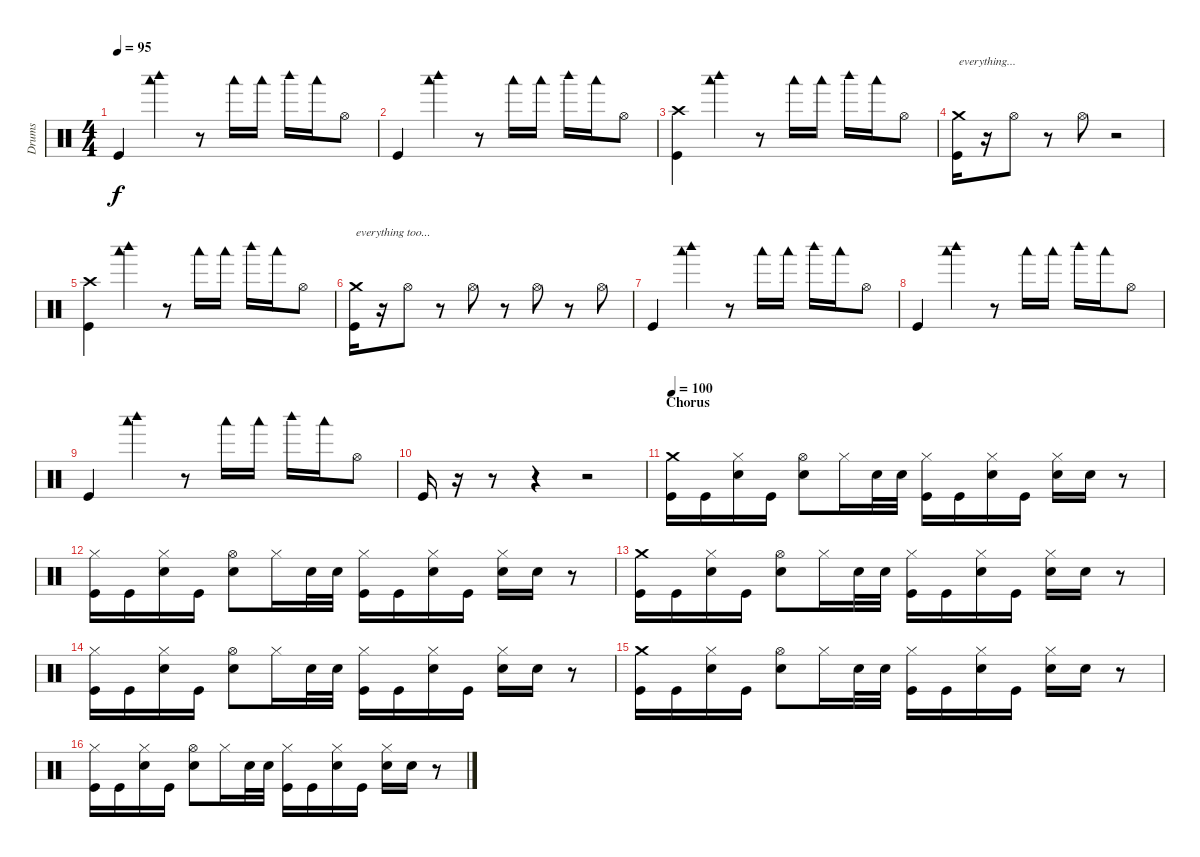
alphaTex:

\track ("Drums" "Drums") {instrument percussion}
\staff {score}
\articulation defaults
\ts (4 4)
\tempo 95
\clef neutral
\ks c "Kick (hit)".4{dy f}
("Woodblock high (hit)" "Woodblock low (hit)").4 r.8 "Woodblock low (hit)".16 "Woodblock low (hit)".16 "Woodblock high (hit)".16 "Woodblock low (hit)".16 "Hi-Hat (open)".8 |
"Kick (hit)".4 ("Woodblock high (hit)" "Woodblock low (hit)").4 r.8 "Woodblock low (hit)".16 "Woodblock low (hit)".16 "Woodblock high (hit)".16 "Woodblock low (hit)".16 "Hi-Hat (open)".8 |
("Crash high (hit)" "Kick (hit)").4 ("Woodblock high (hit)" "Woodblock low (hit)").4 r.8 "Woodblock low (hit)".16 "Woodblock low (hit)".16 "Woodblock high (hit)".16 "Woodblock low (hit)".16 "Hi-Hat (open)".8 |
("Crash medium (hit)" "Kick (hit)").16{txt "everything..."} r.16 "Hi-Hat (open)".8 r.8 "Hi-Hat (open)".8 r.2 |
("Crash high (hit)" "Kick (hit)").4 ("Woodblock high (hit)" "Woodblock low (hit)").4 r.8 "Woodblock low (hit)".16 "Woodblock low (hit)".16 "Woodblock high (hit)".16 "Woodblock low (hit)".16 "Hi-Hat (open)".8 |
("Crash medium (hit)" "Kick (hit)").16{txt "everything too..."} r.16 "Hi-Hat (open)".8 r.8 "Hi-Hat (open)".8 r.8 "Hi-Hat (open)".8 r.8 "Hi-Hat (open)".8 |
"Kick (hit)".4 ("Woodblock high (hit)" "Woodblock low (hit)").4 r.8 "Woodblock low (hit)".16 "Woodblock low (hit)".16 "Woodblock high (hit)".16 "Woodblock low (hit)".16 "Hi-Hat (open)".8 |
"Kick (hit)".4 ("Woodblock high (hit)" "Woodblock low (hit)").4 r.8 "Woodblock low (hit)".16 "Woodblock low (hit)".16 "Woodblock high (hit)".16 "Woodblock low (hit)".16 "Hi-Hat (open)".8 |
"Kick (hit)".4 ("Woodblock high (hit)" "Woodblock low (hit)").4 r.8 "Woodblock low (hit)".16 "Woodblock low (hit)".16 "Woodblock high (hit)".16 "Woodblock low (hit)".16 "Hi-Hat (open)".8 |
"Kick (hit)".16 r.16 r.8 r.4 r.2 |
\section ("" "Chorus")
\tempo 100
("Crash medium (hit)" "Kick (hit)").16 "Kick (hit)".16 ("Hi-Hat (closed)" "Electric Snare (hit)").16 "Kick (hit)".16 ("Hi-Hat (open)" "Electric Snare (hit)").8 "Hi-Hat (closed)".16 "Electric Snare (hit)".32 "Electric Snare (hit)".32 ("Hi-Hat (closed)" "Kick (hit)").16 "Kick (hit)".16 ("Hi-Hat (closed)" "Electric Snare (hit)").16 "Kick (hit)".16 ("Hi-Hat (closed)" "Electric Snare (hit)").16 "Electric Snare (hit)".16 r.8 |
("Hi-Hat (closed)" "Kick (hit)").16 "Kick (hit)".16 ("Hi-Hat (closed)" "Electric Snare (hit)").16 "Kick (hit)".16 ("Hi-Hat (open)" "Electric Snare (hit)").8 "Hi-Hat (closed)".16 "Electric Snare (hit)".32 "Electric Snare (hit)".32 ("Hi-Hat (closed)" "Kick (hit)").16 "Kick (hit)".16 ("Hi-Hat (closed)" "Electric Snare (hit)").16 "Kick (hit)".16 ("Hi-Hat (closed)" "Electric Snare (hit)").16 "Electric Snare (hit)".16 r.8 |
("Crash medium (hit)" "Kick (hit)").16 "Kick (hit)".16 ("Hi-Hat (closed)" "Electric Snare (hit)").16 "Kick (hit)".16 ("Hi-Hat (open)" "Electric Snare (hit)").8 "Hi-Hat (closed)".16 "Electric Snare (hit)".32 "Electric Snare (hit)".32 ("Hi-Hat (closed)" "Kick (hit)").16 "Kick (hit)".16 ("Hi-Hat (closed)" "Electric Snare (hit)").16 "Kick (hit)".16 ("Hi-Hat (closed)" "Electric Snare (hit)").16 "Electric Snare (hit)".16 r.8 |
("Hi-Hat (closed)" "Kick (hit)").16 "Kick (hit)".16 ("Hi-Hat (closed)" "Electric Snare (hit)").16 "Kick (hit)".16 ("Hi-Hat (open)" "Electric Snare (hit)").8 "Hi-Hat (closed)".16 "Electric Snare (hit)".32 "Electric Snare (hit)".32 ("Hi-Hat (closed)" "Kick (hit)").16 "Kick (hit)".16 ("Hi-Hat (closed)" "Electric Snare (hit)").16 "Kick (hit)".16 ("Hi-Hat (closed)" "Electric Snare (hit)").16 "Electric Snare (hit)".16 r.8 |
("Crash medium (hit)" "Kick (hit)").16 "Kick (hit)".16 ("Hi-Hat (closed)" "Electric Snare (hit)").16 "Kick (hit)".16 ("Hi-Hat (open)" "Electric Snare (hit)").8 "Hi-Hat (closed)".16 "Electric Snare (hit)".32 "Electric Snare (hit)".32 ("Hi-Hat (closed)" "Kick (hit)").16 "Kick (hit)".16 ("Hi-Hat (closed)" "Electric Snare (hit)").16 "Kick (hit)".16 ("Hi-Hat (closed)" "Electric Snare (hit)").16 "Electric Snare (hit)".16 r.8 |
("Hi-Hat (closed)" "Kick (hit)").16 "Kick (hit)".16 ("Hi-Hat (closed)" "Electric Snare (hit)").16 "Kick (hit)".16 ("Hi-Hat (open)" "Electric Snare (hit)").8 "Hi-Hat (closed)".16 "Electric Snare (hit)".32 "Electric Snare (hit)".32 ("Hi-Hat (closed)" "Kick (hit)").16 "Kick (hit)".16 ("Hi-Hat (closed)" "Electric Snare (hit)").16 "Kick (hit)".16 ("Hi-Hat (closed)" "Electric Snare (hit)").16 "Electric Snare (hit)".16 r.8
